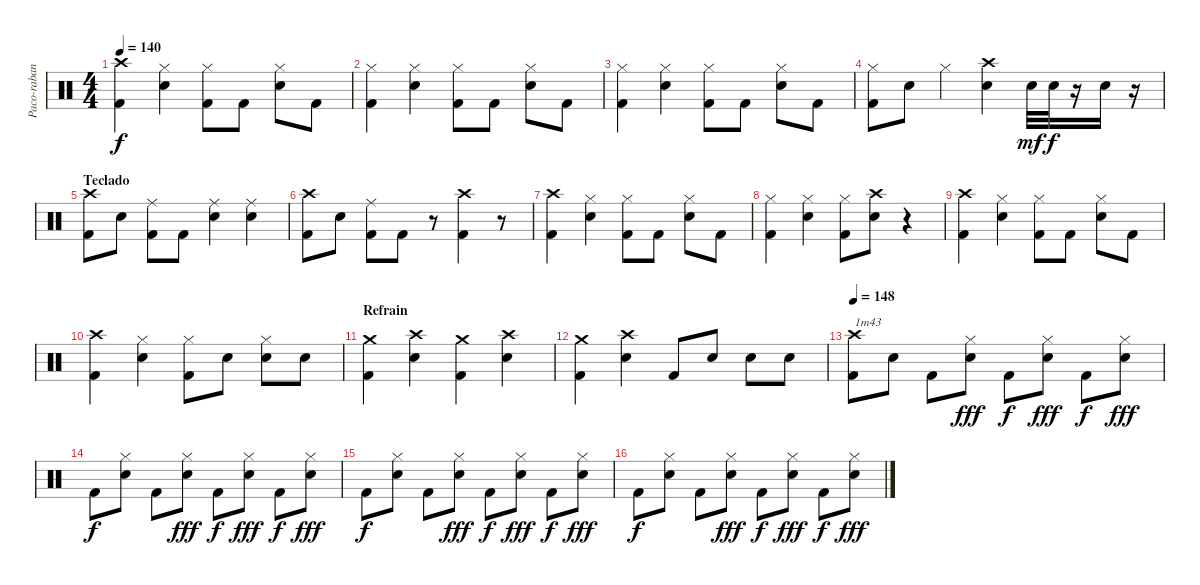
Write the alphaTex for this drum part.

\track ("Paco-rabane" "Paco-raban") {instrument percussion}
\staff {score}
\articulation defaults
\ts (4 4)
\tempo 140
\clef neutral
\ks c
("Crash high (hit)" "Kick (hit) 2").4{dy f} ("Hi-Hat (closed)" "Snare (hit) 2").4 ("Hi-Hat (closed)" "Kick (hit) 2").8 "Kick (hit) 2".8 ("Hi-Hat (closed)" "Snare (hit) 2").8 "Kick (hit) 2".8 |
("Hi-Hat (closed)" "Kick (hit) 2").4 ("Hi-Hat (closed)" "Snare (hit) 2").4 ("Hi-Hat (closed)" "Kick (hit) 2").8 "Kick (hit) 2".8 ("Hi-Hat (closed)" "Snare (hit) 2").8 "Kick (hit) 2".8 |
("Hi-Hat (closed)" "Kick (hit) 2").4 ("Hi-Hat (closed)" "Snare (hit) 2").4 ("Hi-Hat (closed)" "Kick (hit) 2").8 "Kick (hit) 2".8 ("Hi-Hat (closed)" "Snare (hit) 2").8 "Kick (hit) 2".8 |
("Hi-Hat (closed)" "Kick (hit) 2").8 "Snare (hit) 2".8 "Hi-Hat (closed)".4 ("Crash high (hit)" "Snare (hit) 2").4 "Snare (hit) 2".32{dy mf} "Snare (hit) 2".32{dy f} r.16 "Snare (hit) 2".16 r.16 |
\section ("" "Teclado")
("Crash high (hit)" "Kick (hit) 2").8 "Snare (hit) 2".8 ("Ride (middle)" "Kick (hit) 2").8 "Kick (hit) 2".8 ("Ride (middle)" "Snare (hit) 2").4 ("Ride (middle)" "Snare (hit) 2").4 |
("Crash high (hit)" "Kick (hit) 2").8 "Snare (hit) 2".8 ("Ride (middle)" "Kick (hit) 2").8 "Kick (hit) 2".8 r.8 ("Crash high (hit)" "Kick (hit) 2").4 r.8 |
("Crash high (hit)" "Kick (hit) 2").4 ("Hi-Hat (closed)" "Snare (hit) 2").4 ("Hi-Hat (closed)" "Kick (hit) 2").8 "Kick (hit) 2".8 ("Hi-Hat (closed)" "Snare (hit) 2").8 "Kick (hit) 2".8 |
("Hi-Hat (closed)" "Kick (hit) 2").4 ("Hi-Hat (closed)" "Snare (hit) 2").4 ("Hi-Hat (closed)" "Kick (hit) 2").8 ("Crash high (hit)" "Snare (hit) 2").8 r.4 |
("Crash high (hit)" "Kick (hit) 2").4 ("Hi-Hat (closed)" "Snare (hit) 2").4 ("Hi-Hat (closed)" "Kick (hit) 2").8 "Kick (hit) 2".8 ("Hi-Hat (closed)" "Snare (hit) 2").8 "Kick (hit) 2".8 |
("Crash high (hit)" "Kick (hit) 2").4 ("Hi-Hat (closed)" "Snare (hit) 2").4 ("Hi-Hat (closed)" "Kick (hit) 2").8 "Snare (hit) 2".8 ("Hi-Hat (closed)" "Snare (hit) 2").8 "Snare (hit) 2".8 |
\section ("" "Refrain")
("Crash medium (hit)" "Kick (hit) 2").4 ("Crash high (hit)" "Snare (hit) 2").4 ("Crash medium (hit)" "Kick (hit) 2").4 ("Crash high (hit)" "Snare (hit) 2").4 |
("Crash medium (hit)" "Kick (hit) 2").4 ("Crash high (hit)" "Snare (hit) 2").4 "Kick (hit) 2".8 "Snare (hit) 2".8 "Snare (hit) 2".8 "Snare (hit) 2".8 |
\tempo 148
("Crash high (hit)" "Kick (hit) 2").8{txt "1m43"} "Snare (hit) 2".8 "Kick (hit) 2".8 ("Hi-Hat (closed)" "Snare (hit) 2").8{dy fff} "Kick (hit) 2".8{dy f} ("Hi-Hat (closed)" "Snare (hit) 2").8{dy fff} "Kick (hit) 2".8{dy f} ("Hi-Hat (closed)" "Snare (hit) 2").8{dy fff} |
"Kick (hit) 2".8{dy f} ("Hi-Hat (closed)" "Snare (hit) 2").8 "Kick (hit) 2".8 ("Hi-Hat (closed)" "Snare (hit) 2").8{dy fff} "Kick (hit) 2".8{dy f} ("Hi-Hat (closed)" "Snare (hit) 2").8{dy fff} "Kick (hit) 2".8{dy f} ("Hi-Hat (closed)" "Snare (hit) 2").8{dy fff} |
"Kick (hit) 2".8{dy f} ("Hi-Hat (closed)" "Snare (hit) 2").8 "Kick (hit) 2".8 ("Hi-Hat (closed)" "Snare (hit) 2").8{dy fff} "Kick (hit) 2".8{dy f} ("Hi-Hat (closed)" "Snare (hit) 2").8{dy fff} "Kick (hit) 2".8{dy f} ("Hi-Hat (closed)" "Snare (hit) 2").8{dy fff} |
"Kick (hit) 2".8{dy f} ("Hi-Hat (closed)" "Snare (hit) 2").8 "Kick (hit) 2".8 ("Hi-Hat (closed)" "Snare (hit) 2").8{dy fff} "Kick (hit) 2".8{dy f} ("Hi-Hat (closed)" "Snare (hit) 2").8{dy fff} "Kick (hit) 2".8{dy f} ("Hi-Hat (closed)" "Snare (hit) 2").8{dy fff}
